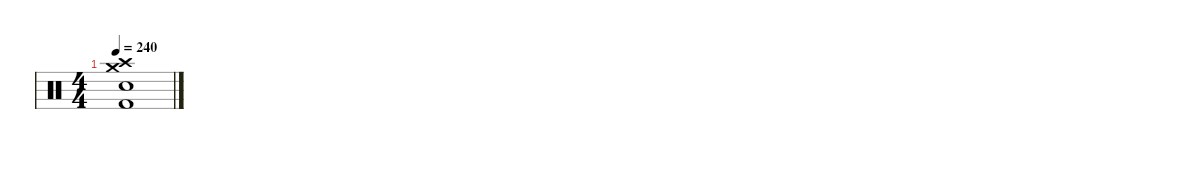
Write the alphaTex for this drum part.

\defaultSystemsLayout 4
\hideDynamics
\bracketExtendMode nobrackets
\singleTrackTrackNamePolicy hidden
\multiTrackTrackNamePolicy hidden
\otherSystemsTrackNameOrientation horizontal
\track ("Drums" "drm.") {instrument percussion}
\staff {score}
\articulation defaults
\ts (4 4)
\tempo 240
\clef neutral
\ks c
("Crash medium (hit)" "Crash high (hit)" "Snare (hit) 2" "Kick (hit) 2").1{dy f}
